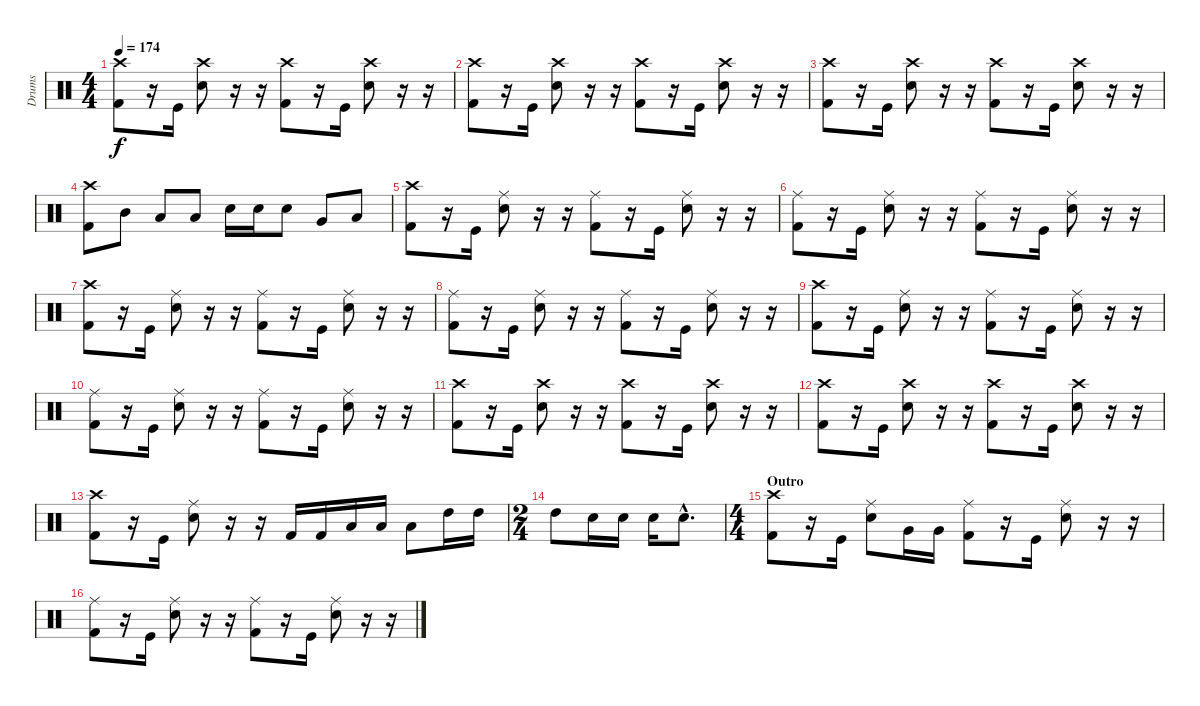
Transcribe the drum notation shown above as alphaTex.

\track ("Drums" "Drums") {instrument percussion}
\staff {score}
\articulation defaults
\ts (4 4)
\tempo 174
\clef neutral
\ks c
("Crash high (hit)" "Kick (hit) 2").8{dy f} r.16 "Kick (hit)".16 ("Crash high (hit)" "Snare (hit) 2").8 r.16 r.16 ("Crash high (hit)" "Kick (hit) 2").8 r.16 "Kick (hit)".16 ("Crash high (hit)" "Snare (hit) 2").8 r.16 r.16 |
("Crash high (hit)" "Kick (hit) 2").8 r.16 "Kick (hit)".16 ("Crash high (hit)" "Snare (hit) 2").8 r.16 r.16 ("Crash high (hit)" "Kick (hit) 2").8 r.16 "Kick (hit)".16 ("Crash high (hit)" "Snare (hit) 2").8 r.16 r.16 |
("Crash high (hit)" "Kick (hit) 2").8 r.16 "Kick (hit)".16 ("Crash high (hit)" "Snare (hit) 2").8 r.16 r.16 ("Crash high (hit)" "Kick (hit) 2").8 r.16 "Kick (hit)".16 ("Crash high (hit)" "Snare (hit) 2").8 r.16 r.16 |
("Crash high (hit)" "Kick (hit) 2").8 "Mid Tom (hit)".8 "Low Tom (hit)".8 "Low Tom (hit)".8 "Snare (hit) 2".16 "Snare (hit) 2".16 "Snare (hit) 2".8 "Very Low Tom (hit)".8 "Low Floor Tom (hit)".8 |
("Crash high (hit)" "Kick (hit) 2").8 r.16 "Kick (hit)".16 ("Ride (middle)" "Snare (hit) 2").8 r.16 r.16 ("Ride (middle)" "Kick (hit) 2").8 r.16 "Kick (hit)".16 ("Ride (middle)" "Snare (hit) 2").8 r.16 r.16 |
("Ride (middle)" "Kick (hit) 2").8 r.16 "Kick (hit)".16 ("Ride (middle)" "Snare (hit) 2").8 r.16 r.16 ("Ride (middle)" "Kick (hit) 2").8 r.16 "Kick (hit)".16 ("Ride (middle)" "Snare (hit) 2").8 r.16 r.16 |
("Crash high (hit)" "Kick (hit) 2").8 r.16 "Kick (hit)".16 ("Ride (middle)" "Snare (hit) 2").8 r.16 r.16 ("Ride (middle)" "Kick (hit) 2").8 r.16 "Kick (hit)".16 ("Ride (middle)" "Snare (hit) 2").8 r.16 r.16 |
("Ride (middle)" "Kick (hit) 2").8 r.16 "Kick (hit)".16 ("Ride (middle)" "Snare (hit) 2").8 r.16 r.16 ("Ride (middle)" "Kick (hit) 2").8 r.16 "Kick (hit)".16 ("Ride (middle)" "Snare (hit) 2").8 r.16 r.16 |
("Crash high (hit)" "Kick (hit) 2").8 r.16 "Kick (hit)".16 ("Ride (middle)" "Snare (hit) 2").8 r.16 r.16 ("Ride (middle)" "Kick (hit) 2").8 r.16 "Kick (hit)".16 ("Ride (middle)" "Snare (hit) 2").8 r.16 r.16 |
("Ride (middle)" "Kick (hit) 2").8 r.16 "Kick (hit)".16 ("Ride (middle)" "Snare (hit) 2").8 r.16 r.16 ("Ride (middle)" "Kick (hit) 2").8 r.16 "Kick (hit)".16 ("Ride (middle)" "Snare (hit) 2").8 r.16 r.16 |
("Crash high (hit)" "Kick (hit) 2").8 r.16 "Kick (hit)".16 ("Crash high (hit)" "Snare (hit) 2").8 r.16 r.16 ("Crash high (hit)" "Kick (hit) 2").8 r.16 "Kick (hit)".16 ("Crash high (hit)" "Snare (hit) 2").8 r.16 r.16 |
("Crash high (hit)" "Kick (hit) 2").8 r.16 "Kick (hit)".16 ("Crash high (hit)" "Snare (hit) 2").8 r.16 r.16 ("Crash high (hit)" "Kick (hit) 2").8 r.16 "Kick (hit)".16 ("Crash high (hit)" "Snare (hit) 2").8 r.16 r.16 |
("Crash high (hit)" "Kick (hit) 2").8 r.16 "Kick (hit)".16 ("Ride (middle)" "Snare (hit) 2").8 r.16 r.16 "Kick (hit) 2".16 "Kick (hit) 2".16 "Low Floor Tom (hit)".16 "Low Floor Tom (hit)".16 "Low Floor Tom (hit)".8 "High Tom (hit)".16 "High Tom (hit)".16 |
\ts (2 4)
"High Tom (hit)".8 "Snare (hit) 2".16 "Snare (hit) 2".16 "Snare (hit) 2".16 "Snare (hit) 2"{hac}.8{d} |
\ts (4 4)
\section ("" "Outro")
("Crash high (hit)" "Kick (hit) 2").8 r.16 "Kick (hit)".16 ("Ride (middle)" "Snare (hit) 2").8 "Very Low Tom (hit)".16 "Very Low Tom (hit)".16 ("Ride (middle)" "Kick (hit) 2").8 r.16 "Kick (hit)".16 ("Ride (middle)" "Snare (hit) 2").8 r.16 r.16 |
("Ride (middle)" "Kick (hit) 2").8 r.16 "Kick (hit)".16 ("Ride (middle)" "Snare (hit) 2").8 r.16 r.16 ("Ride (middle)" "Kick (hit) 2").8 r.16 "Kick (hit)".16 ("Ride (middle)" "Snare (hit) 2").8 r.16 r.16
